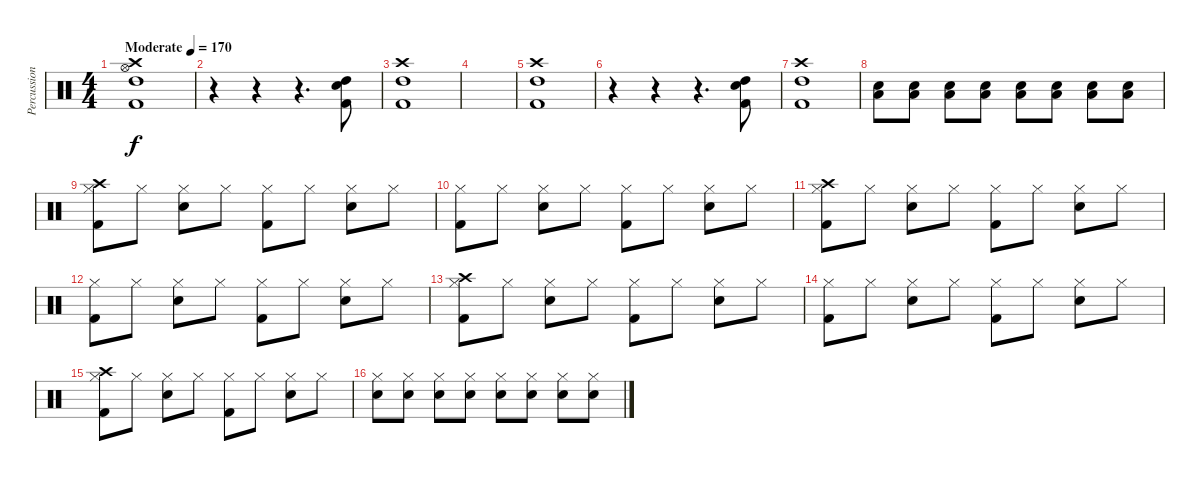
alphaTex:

\track ("Percussion" "Percussion") {instrument percussion}
\staff {score}
\articulation defaults
\ts (4 4)
\tempo (170 "Moderate")
\clef neutral
\ks c
("Hi-Hat (open)" "Crash high (hit)" "High Tom (hit)" "Kick (hit) 2").1{dy f} |
r.4 r.4 r.4{d} ("Snare (hit) 2" "High Tom (hit)" "Kick (hit) 2").8 |
("Crash high (hit)" "High Tom (hit)" "Kick (hit) 2").1 |
|
("Crash high (hit)" "High Tom (hit)" "Kick (hit) 2").1 |
r.4 r.4 r.4{d} ("Snare (hit) 2" "High Tom (hit)" "Kick (hit) 2").8 |
("Crash high (hit)" "High Tom (hit)" "Kick (hit) 2").1 |
("Low Floor Tom (hit)" "Snare (hit) 2").8 ("Low Floor Tom (hit)" "Snare (hit) 2").8 ("Low Floor Tom (hit)" "Snare (hit) 2").8 ("Low Floor Tom (hit)" "Snare (hit) 2").8 ("Low Floor Tom (hit)" "Snare (hit) 2").8 ("Low Floor Tom (hit)" "Snare (hit) 2").8 ("Low Floor Tom (hit)" "Snare (hit) 2").8 ("Low Floor Tom (hit)" "Snare (hit) 2").8 |
("Hi-Hat (closed)" "Crash high (hit)" "Kick (hit) 2").8 "Hi-Hat (closed)".8 ("Hi-Hat (closed)" "Snare (hit) 2").8 "Hi-Hat (closed)".8 ("Hi-Hat (closed)" "Kick (hit) 2").8 "Hi-Hat (closed)".8 ("Hi-Hat (closed)" "Snare (hit) 2").8 "Hi-Hat (closed)".8 |
("Hi-Hat (closed)" "Kick (hit) 2").8 "Hi-Hat (closed)".8 ("Hi-Hat (closed)" "Snare (hit) 2").8 "Hi-Hat (closed)".8 ("Hi-Hat (closed)" "Kick (hit) 2").8 "Hi-Hat (closed)".8 ("Hi-Hat (closed)" "Snare (hit) 2").8 "Hi-Hat (closed)".8 |
("Hi-Hat (closed)" "Crash high (hit)" "Kick (hit) 2").8 "Hi-Hat (closed)".8 ("Hi-Hat (closed)" "Snare (hit) 2").8 "Hi-Hat (closed)".8 ("Hi-Hat (closed)" "Kick (hit) 2").8 "Hi-Hat (closed)".8 ("Hi-Hat (closed)" "Snare (hit) 2").8 "Hi-Hat (closed)".8 |
("Hi-Hat (closed)" "Kick (hit) 2").8 "Hi-Hat (closed)".8 ("Hi-Hat (closed)" "Snare (hit) 2").8 "Hi-Hat (closed)".8 ("Hi-Hat (closed)" "Kick (hit) 2").8 "Hi-Hat (closed)".8 ("Hi-Hat (closed)" "Snare (hit) 2").8 "Hi-Hat (closed)".8 |
("Hi-Hat (closed)" "Crash high (hit)" "Kick (hit) 2").8 "Hi-Hat (closed)".8 ("Hi-Hat (closed)" "Snare (hit) 2").8 "Hi-Hat (closed)".8 ("Hi-Hat (closed)" "Kick (hit) 2").8 "Hi-Hat (closed)".8 ("Hi-Hat (closed)" "Snare (hit) 2").8 "Hi-Hat (closed)".8 |
("Hi-Hat (closed)" "Kick (hit) 2").8 "Hi-Hat (closed)".8 ("Hi-Hat (closed)" "Snare (hit) 2").8 "Hi-Hat (closed)".8 ("Hi-Hat (closed)" "Kick (hit) 2").8 "Hi-Hat (closed)".8 ("Hi-Hat (closed)" "Snare (hit) 2").8 "Hi-Hat (closed)".8 |
("Hi-Hat (closed)" "Crash high (hit)" "Kick (hit) 2").8 "Hi-Hat (closed)".8 ("Hi-Hat (closed)" "Snare (hit) 2").8 "Hi-Hat (closed)".8 ("Hi-Hat (closed)" "Kick (hit) 2").8 "Hi-Hat (closed)".8 ("Hi-Hat (closed)" "Snare (hit) 2").8 "Hi-Hat (closed)".8 |
("Hi-Hat (closed)" "Snare (hit) 2").8 ("Hi-Hat (closed)" "Snare (hit) 2").8 ("Hi-Hat (closed)" "Snare (hit) 2").8 ("Hi-Hat (closed)" "Snare (hit) 2").8 ("Hi-Hat (closed)" "Snare (hit) 2").8 ("Hi-Hat (closed)" "Snare (hit) 2").8 ("Hi-Hat (closed)" "Snare (hit) 2").8 ("Hi-Hat (closed)" "Snare (hit) 2").8
